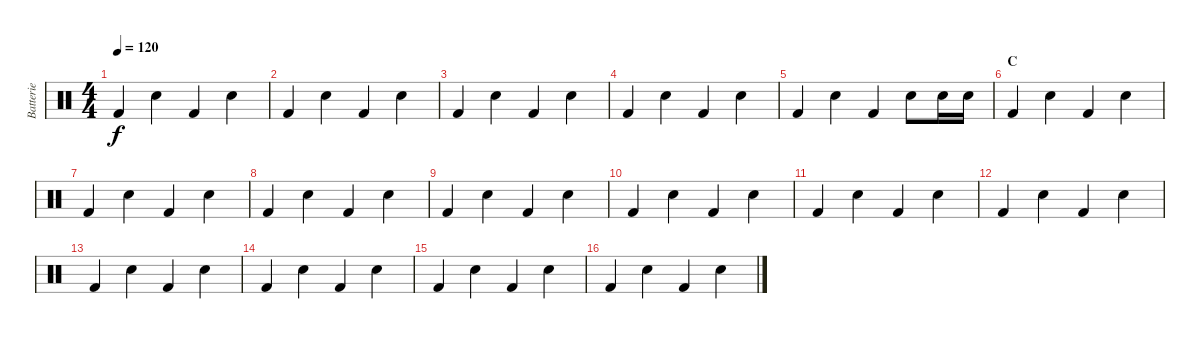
\track ("Batterie" "Batterie") {instrument percussion}
\staff {score}
\articulation defaults
\ts (4 4)
\tempo 120
\clef neutral
\ks c "Kick (hit) 2".4{dy f} "Electric Snare (hit)".4 "Kick (hit) 2".4 "Electric Snare (hit)".4
|
"Kick (hit) 2".4 "Electric Snare (hit)".4 "Kick (hit) 2".4 "Electric Snare (hit)".4 |
"Kick (hit) 2".4 "Electric Snare (hit)".4 "Kick (hit) 2".4 "Electric Snare (hit)".4 |
"Kick (hit) 2".4 "Electric Snare (hit)".4 "Kick (hit) 2".4 "Electric Snare (hit)".4 |
"Kick (hit) 2".4 "Electric Snare (hit)".4 "Kick (hit) 2".4 "Electric Snare (hit)".8 "Electric Snare (hit)".16 "Electric Snare (hit)".16 |
\section ("" "C")
"Kick (hit) 2".4 "Electric Snare (hit)".4 "Kick (hit) 2".4 "Electric Snare (hit)".4 |
"Kick (hit) 2".4 "Electric Snare (hit)".4 "Kick (hit) 2".4 "Electric Snare (hit)".4 |
"Kick (hit) 2".4 "Electric Snare (hit)".4 "Kick (hit) 2".4 "Electric Snare (hit)".4 |
"Kick (hit) 2".4 "Electric Snare (hit)".4 "Kick (hit) 2".4 "Electric Snare (hit)".4 |
"Kick (hit) 2".4 "Electric Snare (hit)".4 "Kick (hit) 2".4 "Electric Snare (hit)".4 |
"Kick (hit) 2".4 "Electric Snare (hit)".4 "Kick (hit) 2".4 "Electric Snare (hit)".4 |
"Kick (hit) 2".4 "Electric Snare (hit)".4 "Kick (hit) 2".4 "Electric Snare (hit)".4 |
"Kick (hit) 2".4 "Electric Snare (hit)".4 "Kick (hit) 2".4 "Electric Snare (hit)".4 |
"Kick (hit) 2".4 "Electric Snare (hit)".4 "Kick (hit) 2".4 "Electric Snare (hit)".4 |
"Kick (hit) 2".4 "Electric Snare (hit)".4 "Kick (hit) 2".4 "Electric Snare (hit)".4 |
"Kick (hit) 2".4 "Electric Snare (hit)".4 "Kick (hit) 2".4 "Electric Snare (hit)".4
